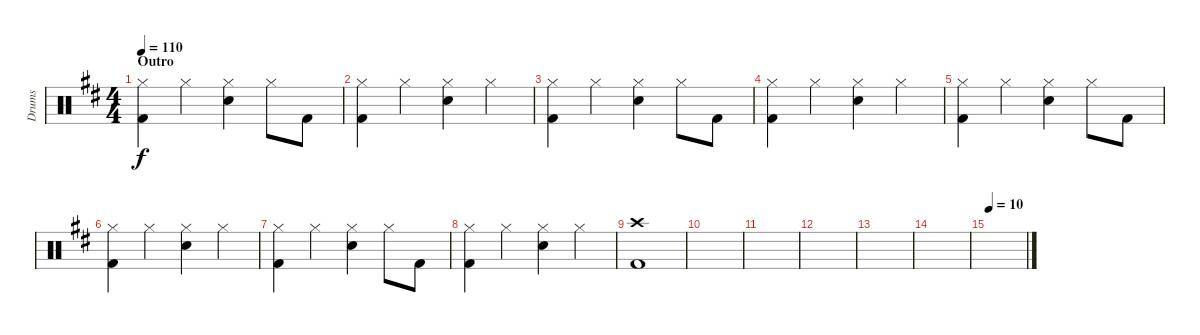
\track ("Drums" "Drums") {instrument percussion}
\staff {score}
\articulation defaults
\ts (4 4)
\section ("" "Outro")
\tempo 110
\clef neutral
\ks bminor
("Hi-Hat (closed)" "Kick (hit) 2").4{dy f} "Hi-Hat (closed)".4 ("Hi-Hat (closed)" "Electric Snare (hit)").4 "Hi-Hat (closed)".8 "Kick (hit) 2".8 |
("Hi-Hat (closed)" "Kick (hit) 2").4 "Hi-Hat (closed)".4 ("Hi-Hat (closed)" "Electric Snare (hit)").4 "Hi-Hat (closed)".4 |
("Hi-Hat (closed)" "Kick (hit) 2").4 "Hi-Hat (closed)".4 ("Hi-Hat (closed)" "Electric Snare (hit)").4 "Hi-Hat (closed)".8 "Kick (hit) 2".8 |
("Hi-Hat (closed)" "Kick (hit) 2").4 "Hi-Hat (closed)".4 ("Hi-Hat (closed)" "Electric Snare (hit)").4 "Hi-Hat (closed)".4 |
("Hi-Hat (closed)" "Kick (hit) 2").4 "Hi-Hat (closed)".4 ("Hi-Hat (closed)" "Electric Snare (hit)").4 "Hi-Hat (closed)".8 "Kick (hit) 2".8 |
("Hi-Hat (closed)" "Kick (hit) 2").4 "Hi-Hat (closed)".4 ("Hi-Hat (closed)" "Electric Snare (hit)").4 "Hi-Hat (closed)".4 |
("Hi-Hat (closed)" "Kick (hit) 2").4 "Hi-Hat (closed)".4 ("Hi-Hat (closed)" "Electric Snare (hit)").4 "Hi-Hat (closed)".8 "Kick (hit) 2".8 |
("Hi-Hat (closed)" "Kick (hit) 2").4 "Hi-Hat (closed)".4 ("Hi-Hat (closed)" "Electric Snare (hit)").4 "Hi-Hat (closed)".4 |
("Crash high (hit)" "Kick (hit) 2").1 |
|
|
|
|
|
\tempo 10
